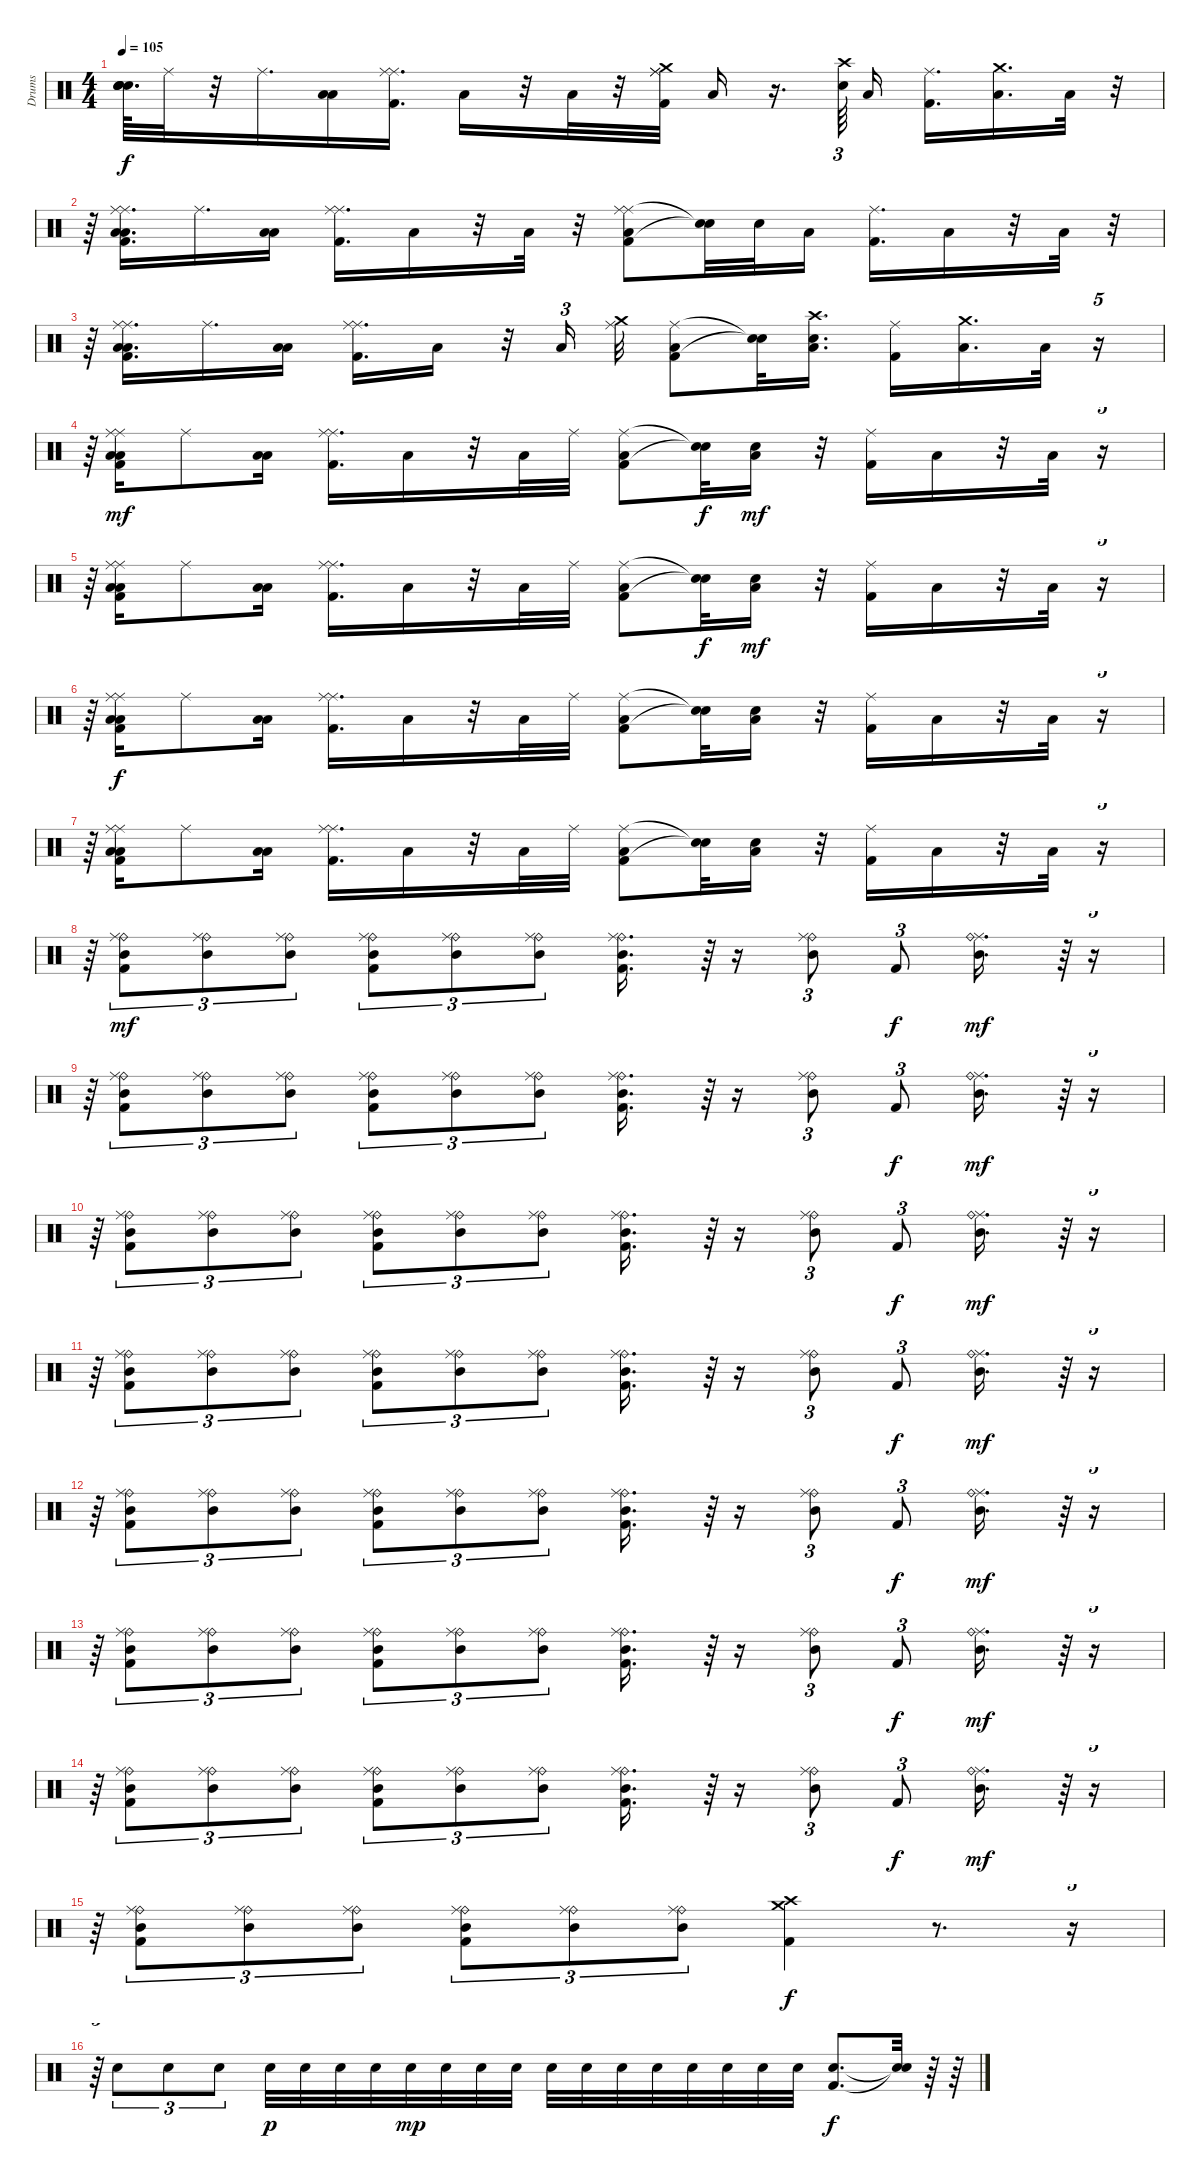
\track ("Drums" "Drums") {instrument percussion}
\staff {score}
\articulation defaults
\ts (4 4)
\tempo 105
\clef neutral
\ks c
("Snare (hit)"{t} "Snare (hit)"{t} "Snare (hit)"{t} "Snare (hit)"{t}).64{d dy f} "Ride (middle)".32 r.32 "Ride (middle)".16{d} ("Low Tom (hit)" "Low Tom (hit)").16 ("Kick (hit) 2" "Ride (middle)" "Ride (middle)").16{d} "Low Tom (hit)".16 r.32 "Low Tom (hit)".32 r.32 ("Ride (middle)" "Kick (hit) 2" "Ride (middle)" "Crash medium (hit)").32 "Low Tom (hit)".16 r.16{d} ("Electric Snare (hit)" "Crash high (hit)").64{tu (3 2)} "Low Tom (hit)".16 ("Kick (hit) 2" "Ride (middle)").16{d} ("Low Tom (hit)" "Crash medium (hit)").16{d} "Low Tom (hit)".32 r.32 |
r.64 ("Low Tom (hit)" "Kick (hit) 2" "Ride (middle)" "Low Tom (hit)" "Ride (middle)").16{d} "Ride (middle)".16{d} ("Low Tom (hit)" "Low Tom (hit)").16 ("Kick (hit) 2" "Ride (middle)" "Ride (middle)").16{d} "Low Tom (hit)".16 r.32 "Low Tom (hit)".32 r.32 ("Ride (middle)" "Kick (hit) 2" "Ride (middle)" "Low Tom (hit)").8 ("Snare (hit)"{t} "Snare (hit)"{t}).32 "Electric Snare (hit)".32 "Low Tom (hit)".16 ("Kick (hit) 2" "Ride (middle)").16{d} "Low Tom (hit)".16 r.32 "Low Tom (hit)".32 r.32 |
r.64 ("Low Tom (hit)" "Kick (hit) 2" "Ride (middle)" "Low Tom (hit)" "Ride (middle)").16{d} "Ride (middle)".16{d} ("Low Tom (hit)" "Low Tom (hit)").16 ("Kick (hit) 2" "Ride (middle)" "Ride (middle)").16{d} "Low Tom (hit)".16 r.32 "Low Tom (hit)".16{tu (3 2)} ("Crash medium (hit)" "Ride (middle)").32 ("Kick (hit) 2" "Ride (middle)" "Low Tom (hit)").8 ("Snare (hit)"{t} "Snare (hit)"{t}).32 ("Crash high (hit)" "Electric Snare (hit)" "Low Tom (hit)").16{d} ("Kick (hit) 2" "Ride (middle)").16 ("Low Tom (hit)" "Crash medium (hit)").16{d} "Low Tom (hit)".32 r.16{tu (5 4)} |
r.64{tu (5 4)} ("Low Tom (hit)" "Kick (hit) 2" "Ride (middle)" "Low Tom (hit)" "Ride (middle)").16{dy mf} "Ride (middle)".8 ("Low Tom (hit)" "Low Tom (hit)").16 ("Kick (hit) 2" "Ride (middle)" "Ride (middle)").16{d} "Low Tom (hit)".16 r.32 "Low Tom (hit)".32 "Ride (middle)".32 ("Kick (hit) 2" "Ride (middle)" "Low Tom (hit)").8 ("Snare (hit)"{t} "Snare (hit)"{t}).32{dy f} ("Electric Snare (hit)" "Low Tom (hit)").16{dy mf} r.32 ("Kick (hit) 2" "Ride (middle)").16 "Low Tom (hit)".16 r.32 "Low Tom (hit)".32 r.16{tu (5 4)} |
r.64{tu (5 4)} ("Low Tom (hit)" "Kick (hit) 2" "Ride (middle)" "Low Tom (hit)" "Ride (middle)").16 "Ride (middle)".8 ("Low Tom (hit)" "Low Tom (hit)").16 ("Kick (hit) 2" "Ride (middle)" "Ride (middle)").16{d} "Low Tom (hit)".16 r.32 "Low Tom (hit)".32 "Ride (middle)".32 ("Kick (hit) 2" "Ride (middle)" "Low Tom (hit)").8 ("Snare (hit)"{t} "Snare (hit)"{t}).32{dy f} ("Electric Snare (hit)" "Low Tom (hit)").16{dy mf} r.32 ("Kick (hit) 2" "Ride (middle)").16 "Low Tom (hit)".16 r.32 "Low Tom (hit)".32 r.16{tu (5 4)} |
r.64{tu (5 4)} ("Low Tom (hit)" "Kick (hit) 2" "Ride (middle)" "Low Tom (hit)" "Ride (middle)").16{dy f} "Ride (middle)".8 ("Low Tom (hit)" "Low Tom (hit)").16 ("Kick (hit) 2" "Ride (middle)" "Ride (middle)").16{d} "Low Tom (hit)".16 r.32 "Low Tom (hit)".32 "Ride (middle)".32 ("Kick (hit) 2" "Ride (middle)" "Low Tom (hit)").8 ("Snare (hit)"{t} "Snare (hit)"{t}).32 ("Electric Snare (hit)" "Low Tom (hit)").16 r.32 ("Kick (hit) 2" "Ride (middle)").16 "Low Tom (hit)".16 r.32 "Low Tom (hit)".32 r.16{tu (5 4)} |
r.64{tu (5 4)} ("Low Tom (hit)" "Kick (hit) 2" "Ride (middle)" "Low Tom (hit)" "Ride (middle)").16 "Ride (middle)".8 ("Low Tom (hit)" "Low Tom (hit)").16 ("Kick (hit) 2" "Ride (middle)" "Ride (middle)").16{d} "Low Tom (hit)".16 r.32 "Low Tom (hit)".32 "Ride (middle)".32 ("Kick (hit) 2" "Ride (middle)" "Low Tom (hit)").8 ("Snare (hit)"{t} "Snare (hit)"{t}).32 ("Electric Snare (hit)" "Low Tom (hit)").16 r.32 ("Kick (hit) 2" "Ride (middle)").16 "Low Tom (hit)".16 r.32 "Low Tom (hit)".32 r.16{tu (5 4)} |
r.64{tu (5 4)} ("Kick (hit) 2" "Ride (bell)" "Mid Tom (hit)" "Ride (middle)").8{tu (3 2) dy mf} ("Mid Tom (hit)" "Ride (bell)" "Ride (middle)").8{tu (3 2)} ("Mid Tom (hit)" "Ride (bell)" "Ride (middle)").8{tu (3 2)} ("Kick (hit) 2" "Mid Tom (hit)" "Ride (bell)" "Ride (middle)").8{tu (3 2)} ("Mid Tom (hit)" "Ride (bell)" "Ride (middle)").8{tu (3 2)} ("Mid Tom (hit)" "Ride (bell)" "Ride (middle)").8{tu (3 2)} ("Kick (hit) 2" "Ride (bell)" "Mid Tom (hit)" "Ride (middle)").16{d} r.64{tu (3 2)} r.16 ("Ride (bell)" "Mid Tom (hit)" "Ride (middle)").8{tu (3 2)} "Kick (hit) 2".8{tu (3 2) dy f} ("Ride (middle)" "Mid Tom (hit)" "Ride (bell)").16{d dy mf} r.64{tu (3 2)} r.16{tu (5 4)} |
r.64{tu (5 4)} ("Kick (hit) 2" "Ride (bell)" "Mid Tom (hit)" "Ride (middle)").8{tu (3 2)} ("Mid Tom (hit)" "Ride (bell)" "Ride (middle)").8{tu (3 2)} ("Mid Tom (hit)" "Ride (bell)" "Ride (middle)").8{tu (3 2)} ("Kick (hit) 2" "Mid Tom (hit)" "Ride (bell)" "Ride (middle)").8{tu (3 2)} ("Mid Tom (hit)" "Ride (bell)" "Ride (middle)").8{tu (3 2)} ("Mid Tom (hit)" "Ride (bell)" "Ride (middle)").8{tu (3 2)} ("Kick (hit) 2" "Ride (bell)" "Mid Tom (hit)" "Ride (middle)").16{d} r.64{tu (3 2)} r.16 ("Ride (bell)" "Mid Tom (hit)" "Ride (middle)").8{tu (3 2)} "Kick (hit) 2".8{tu (3 2) dy f} ("Ride (middle)" "Mid Tom (hit)" "Ride (bell)").16{d dy mf} r.64{tu (3 2)} r.16{tu (5 4)} |
r.64{tu (5 4)} ("Kick (hit) 2" "Ride (bell)" "Mid Tom (hit)" "Ride (middle)").8{tu (3 2)} ("Mid Tom (hit)" "Ride (bell)" "Ride (middle)").8{tu (3 2)} ("Mid Tom (hit)" "Ride (bell)" "Ride (middle)").8{tu (3 2)} ("Kick (hit) 2" "Mid Tom (hit)" "Ride (bell)" "Ride (middle)").8{tu (3 2)} ("Mid Tom (hit)" "Ride (bell)" "Ride (middle)").8{tu (3 2)} ("Mid Tom (hit)" "Ride (bell)" "Ride (middle)").8{tu (3 2)} ("Kick (hit) 2" "Ride (bell)" "Mid Tom (hit)" "Ride (middle)").16{d} r.64{tu (3 2)} r.16 ("Ride (bell)" "Mid Tom (hit)" "Ride (middle)").8{tu (3 2)} "Kick (hit) 2".8{tu (3 2) dy f} ("Ride (middle)" "Mid Tom (hit)" "Ride (bell)").16{d dy mf} r.64{tu (3 2)} r.16{tu (5 4)} |
r.64{tu (5 4)} ("Kick (hit) 2" "Ride (bell)" "Mid Tom (hit)" "Ride (middle)").8{tu (3 2)} ("Mid Tom (hit)" "Ride (bell)" "Ride (middle)").8{tu (3 2)} ("Mid Tom (hit)" "Ride (bell)" "Ride (middle)").8{tu (3 2)} ("Kick (hit) 2" "Mid Tom (hit)" "Ride (bell)" "Ride (middle)").8{tu (3 2)} ("Mid Tom (hit)" "Ride (bell)" "Ride (middle)").8{tu (3 2)} ("Mid Tom (hit)" "Ride (bell)" "Ride (middle)").8{tu (3 2)} ("Kick (hit) 2" "Ride (bell)" "Mid Tom (hit)" "Ride (middle)").16{d} r.64{tu (3 2)} r.16 ("Ride (bell)" "Mid Tom (hit)" "Ride (middle)").8{tu (3 2)} "Kick (hit) 2".8{tu (3 2) dy f} ("Ride (middle)" "Mid Tom (hit)" "Ride (bell)").16{d dy mf} r.64{tu (3 2)} r.16{tu (5 4)} |
r.64{tu (5 4)} ("Kick (hit) 2" "Ride (bell)" "Mid Tom (hit)" "Ride (middle)").8{tu (3 2)} ("Mid Tom (hit)" "Ride (bell)" "Ride (middle)").8{tu (3 2)} ("Mid Tom (hit)" "Ride (bell)" "Ride (middle)").8{tu (3 2)} ("Kick (hit) 2" "Mid Tom (hit)" "Ride (bell)" "Ride (middle)").8{tu (3 2)} ("Mid Tom (hit)" "Ride (bell)" "Ride (middle)").8{tu (3 2)} ("Mid Tom (hit)" "Ride (bell)" "Ride (middle)").8{tu (3 2)} ("Kick (hit) 2" "Ride (bell)" "Mid Tom (hit)" "Ride (middle)").16{d} r.64{tu (3 2)} r.16 ("Ride (bell)" "Mid Tom (hit)" "Ride (middle)").8{tu (3 2)} "Kick (hit) 2".8{tu (3 2) dy f} ("Ride (middle)" "Mid Tom (hit)" "Ride (bell)").16{d dy mf} r.64{tu (3 2)} r.16{tu (5 4)} |
r.64{tu (5 4)} ("Kick (hit) 2" "Ride (bell)" "Mid Tom (hit)" "Ride (middle)").8{tu (3 2)} ("Mid Tom (hit)" "Ride (bell)" "Ride (middle)").8{tu (3 2)} ("Mid Tom (hit)" "Ride (bell)" "Ride (middle)").8{tu (3 2)} ("Kick (hit) 2" "Mid Tom (hit)" "Ride (bell)" "Ride (middle)").8{tu (3 2)} ("Mid Tom (hit)" "Ride (bell)" "Ride (middle)").8{tu (3 2)} ("Mid Tom (hit)" "Ride (bell)" "Ride (middle)").8{tu (3 2)} ("Kick (hit) 2" "Ride (bell)" "Mid Tom (hit)" "Ride (middle)").16{d} r.64{tu (3 2)} r.16 ("Ride (bell)" "Mid Tom (hit)" "Ride (middle)").8{tu (3 2)} "Kick (hit) 2".8{tu (3 2) dy f} ("Ride (middle)" "Mid Tom (hit)" "Ride (bell)").16{d dy mf} r.64{tu (3 2)} r.16{tu (5 4)} |
r.64{tu (5 4)} ("Kick (hit) 2" "Ride (bell)" "Mid Tom (hit)" "Ride (middle)").8{tu (3 2)} ("Mid Tom (hit)" "Ride (bell)" "Ride (middle)").8{tu (3 2)} ("Mid Tom (hit)" "Ride (bell)" "Ride (middle)").8{tu (3 2)} ("Kick (hit) 2" "Mid Tom (hit)" "Ride (bell)" "Ride (middle)").8{tu (3 2)} ("Mid Tom (hit)" "Ride (bell)" "Ride (middle)").8{tu (3 2)} ("Mid Tom (hit)" "Ride (bell)" "Ride (middle)").8{tu (3 2)} ("Kick (hit) 2" "Ride (bell)" "Mid Tom (hit)" "Ride (middle)").16{d} r.64{tu (3 2)} r.16 ("Ride (bell)" "Mid Tom (hit)" "Ride (middle)").8{tu (3 2)} "Kick (hit) 2".8{tu (3 2) dy f} ("Ride (middle)" "Mid Tom (hit)" "Ride (bell)").16{d dy mf} r.64{tu (3 2)} r.16{tu (5 4)} |
r.64{tu (5 4)} ("Kick (hit) 2" "Ride (bell)" "Mid Tom (hit)" "Ride (middle)").8{tu (3 2)} ("Mid Tom (hit)" "Ride (bell)" "Ride (middle)").8{tu (3 2)} ("Mid Tom (hit)" "Ride (bell)" "Ride (middle)").8{tu (3 2)} ("Kick (hit) 2" "Mid Tom (hit)" "Ride (bell)" "Ride (middle)").8{tu (3 2)} ("Mid Tom (hit)" "Ride (bell)" "Ride (middle)").8{tu (3 2)} ("Mid Tom (hit)" "Ride (bell)" "Ride (middle)").8{tu (3 2)} ("Crash high (hit)" "Crash medium (hit)" "Kick (hit) 2").4{dy f} r.8{d} r.16{tu (5 4)} |
r.64{tu (5 4)} "Electric Snare (hit)".8{tu (3 2)} "Electric Snare (hit)".8{tu (3 2)} "Electric Snare (hit)".8{tu (3 2)} "Electric Snare (hit)".32{dy p} "Electric Snare (hit)".32 "Electric Snare (hit)".32 "Electric Snare (hit)".32 "Electric Snare (hit)".32{dy mp} "Electric Snare (hit)".32 "Electric Snare (hit)".32 "Electric Snare (hit)".32 "Electric Snare (hit)".32 "Electric Snare (hit)".32 "Electric Snare (hit)".32 "Electric Snare (hit)".32 "Electric Snare (hit)".32 "Electric Snare (hit)".32 "Electric Snare (hit)".32 "Electric Snare (hit)".32 ("Electric Snare (hit)" "Kick (hit) 2").8{d dy f} ("Snare (hit)"{t} "Snare (hit)"{t}).32 r.64 r.64
